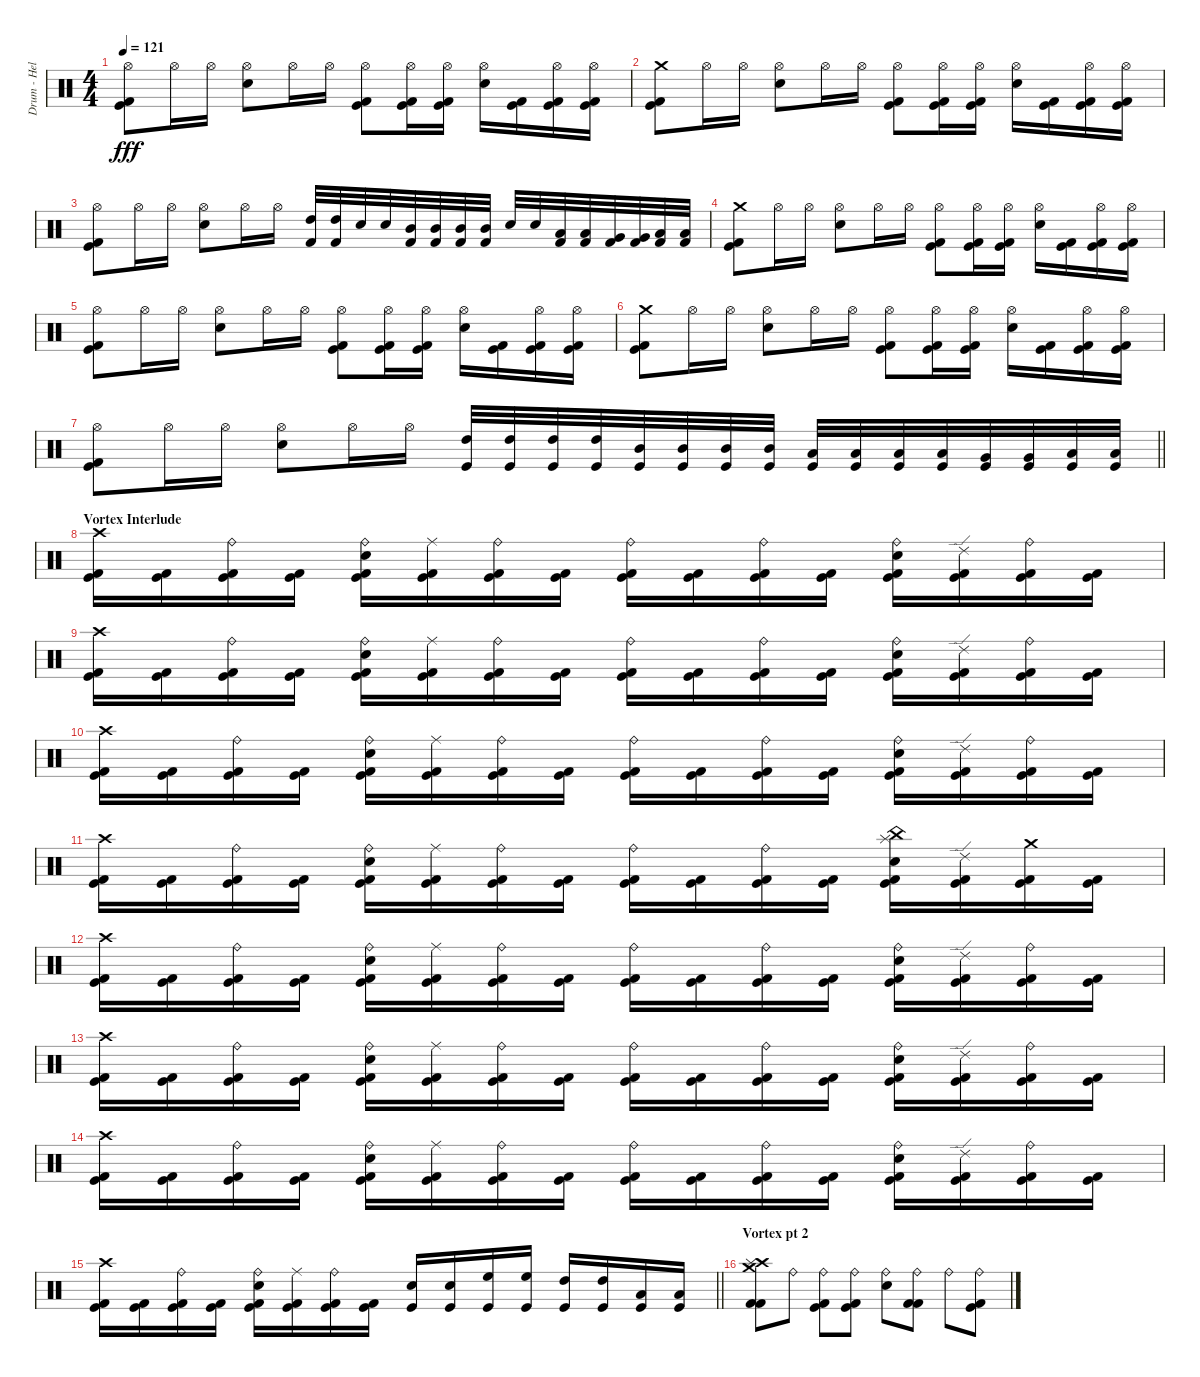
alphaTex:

\track ("Drum - Hellhammer" "Drum - Hel") {instrument percussion}
\staff {score}
\articulation defaults
\ts (4 4)
\tempo 121
\clef neutral
\ks c
("Hi-Hat (open)" "Kick (hit) 2" "Kick (hit)").8{dy fff} "Hi-Hat (open)".16 "Hi-Hat (open)".16 ("Hi-Hat (open)" "Electric Snare (hit)").8 "Hi-Hat (open)".16 "Hi-Hat (open)".16 ("Hi-Hat (open)" "Kick (hit) 2" "Kick (hit)").8 ("Hi-Hat (open)" "Kick (hit) 2" "Kick (hit)").16 ("Hi-Hat (open)" "Kick (hit) 2" "Kick (hit)").16 ("Hi-Hat (open)" "Electric Snare (hit)").16 ("Kick (hit) 2" "Kick (hit)").16 ("Hi-Hat (open)" "Kick (hit) 2" "Kick (hit)").16 ("Hi-Hat (open)" "Kick (hit) 2" "Kick (hit)").16 |
("Crash medium (hit)" "Kick (hit) 2" "Kick (hit)").8 "Hi-Hat (open)".16 "Hi-Hat (open)".16 ("Hi-Hat (open)" "Electric Snare (hit)").8 "Hi-Hat (open)".16 "Hi-Hat (open)".16 ("Hi-Hat (open)" "Kick (hit) 2" "Kick (hit)").8 ("Hi-Hat (open)" "Kick (hit) 2" "Kick (hit)").16 ("Hi-Hat (open)" "Kick (hit) 2" "Kick (hit)").16 ("Hi-Hat (open)" "Electric Snare (hit)").16 ("Kick (hit) 2" "Kick (hit)").16 ("Hi-Hat (open)" "Kick (hit) 2" "Kick (hit)").16 ("Hi-Hat (open)" "Kick (hit) 2" "Kick (hit)").16 |
("Hi-Hat (open)" "Kick (hit) 2" "Kick (hit)").8 "Hi-Hat (open)".16 "Hi-Hat (open)".16 ("Hi-Hat (open)" "Electric Snare (hit)").8 "Hi-Hat (open)".16 "Hi-Hat (open)".16 ("High Tom (hit)" "Kick (hit) 2").32 ("High Tom (hit)" "Kick (hit) 2").32 "Electric Snare (hit)".32 "Electric Snare (hit)".32 ("Mid Tom (hit)" "Kick (hit) 2").32 ("Mid Tom (hit)" "Kick (hit) 2").32 ("Mid Tom (hit)" "Kick (hit) 2").32 ("Mid Tom (hit)" "Kick (hit) 2").32 "Electric Snare (hit)".32 "Electric Snare (hit)".32 ("Low Tom (hit)" "Kick (hit) 2").32 ("Low Tom (hit)" "Kick (hit) 2").32 ("Very Low Tom (hit)" "Kick (hit) 2").32 ("Very Low Tom (hit)" "Kick (hit) 2").32 ("Low Floor Tom (hit)" "Kick (hit) 2").32 ("Low Floor Tom (hit)" "Kick (hit) 2").32 |
("Crash medium (hit)" "Kick (hit) 2" "Kick (hit)").8 "Hi-Hat (open)".16 "Hi-Hat (open)".16 ("Hi-Hat (open)" "Electric Snare (hit)").8 "Hi-Hat (open)".16 "Hi-Hat (open)".16 ("Hi-Hat (open)" "Kick (hit) 2" "Kick (hit)").8 ("Hi-Hat (open)" "Kick (hit) 2" "Kick (hit)").16 ("Hi-Hat (open)" "Kick (hit) 2" "Kick (hit)").16 ("Hi-Hat (open)" "Electric Snare (hit)").16 ("Kick (hit) 2" "Kick (hit)").16 ("Hi-Hat (open)" "Kick (hit) 2" "Kick (hit)").16 ("Hi-Hat (open)" "Kick (hit) 2" "Kick (hit)").16 |
("Hi-Hat (open)" "Kick (hit) 2" "Kick (hit)").8 "Hi-Hat (open)".16 "Hi-Hat (open)".16 ("Hi-Hat (open)" "Electric Snare (hit)").8 "Hi-Hat (open)".16 "Hi-Hat (open)".16 ("Hi-Hat (open)" "Kick (hit) 2" "Kick (hit)").8 ("Hi-Hat (open)" "Kick (hit) 2" "Kick (hit)").16 ("Hi-Hat (open)" "Kick (hit) 2" "Kick (hit)").16 ("Hi-Hat (open)" "Electric Snare (hit)").16 ("Kick (hit) 2" "Kick (hit)").16 ("Hi-Hat (open)" "Kick (hit) 2" "Kick (hit)").16 ("Hi-Hat (open)" "Kick (hit) 2" "Kick (hit)").16 |
("Crash medium (hit)" "Kick (hit) 2" "Kick (hit)").8 "Hi-Hat (open)".16 "Hi-Hat (open)".16 ("Hi-Hat (open)" "Electric Snare (hit)").8 "Hi-Hat (open)".16 "Hi-Hat (open)".16 ("Hi-Hat (open)" "Kick (hit) 2" "Kick (hit)").8 ("Hi-Hat (open)" "Kick (hit) 2" "Kick (hit)").16 ("Hi-Hat (open)" "Kick (hit) 2" "Kick (hit)").16 ("Hi-Hat (open)" "Electric Snare (hit)").16 ("Kick (hit) 2" "Kick (hit)").16 ("Hi-Hat (open)" "Kick (hit) 2" "Kick (hit)").16 ("Hi-Hat (open)" "Kick (hit) 2" "Kick (hit)").16 |
\barLineRight lightlight
("Hi-Hat (open)" "Kick (hit) 2" "Kick (hit)").8 "Hi-Hat (open)".16 "Hi-Hat (open)".16 ("Hi-Hat (open)" "Electric Snare (hit)").8 "Hi-Hat (open)".16 "Hi-Hat (open)".16 ("High Tom (hit)" "Kick (hit)").32 ("High Tom (hit)" "Kick (hit)").32 ("High Tom (hit)" "Kick (hit)").32 ("High Tom (hit)" "Kick (hit)").32 ("Mid Tom (hit)" "Kick (hit)").32 ("Mid Tom (hit)" "Kick (hit)").32 ("Mid Tom (hit)" "Kick (hit)").32 ("Mid Tom (hit)" "Kick (hit)").32 ("Low Tom (hit)" "Kick (hit)").32 ("Low Tom (hit)" "Kick (hit)").32 ("Low Tom (hit)" "Kick (hit)").32 ("Low Tom (hit)" "Kick (hit)").32 ("Very Low Tom (hit)" "Kick (hit)").32 ("Very Low Tom (hit)" "Kick (hit)").32 ("Low Floor Tom (hit)" "Kick (hit)").32 ("Low Floor Tom (hit)" "Kick (hit)").32 |
\section ("" "Vortex Interlude")
("Crash high (hit)" "Kick (hit) 2" "Kick (hit)").16 ("Kick (hit) 2" "Kick (hit)").16 ("Ride (bell)" "Kick (hit) 2" "Kick (hit)").16 ("Kick (hit) 2" "Kick (hit)").16 ("Ride (bell)" "Electric Snare (hit)" "Kick (hit) 2" "Kick (hit)").16 ("Ride (middle)" "Kick (hit) 2" "Kick (hit)").16 ("Ride (bell)" "Kick (hit) 2" "Kick (hit)").16 ("Kick (hit) 2" "Kick (hit)").16 ("Ride (bell)" "Kick (hit) 2" "Kick (hit)").16 ("Kick (hit) 2" "Kick (hit)").16 ("Ride (bell)" "Kick (hit) 2" "Kick (hit)").16 ("Kick (hit) 2" "Kick (hit)").16 ("Ride (bell)" "Electric Snare (hit)" "Kick (hit) 2" "Kick (hit)").16 ("Ride (edge) 2" "Kick (hit) 2" "Kick (hit)").16 ("Ride (bell)" "Kick (hit) 2" "Kick (hit)").16 ("Kick (hit) 2" "Kick (hit)").16 |
("Crash high (hit)" "Kick (hit) 2" "Kick (hit)").16 ("Kick (hit) 2" "Kick (hit)").16 ("Ride (bell)" "Kick (hit) 2" "Kick (hit)").16 ("Kick (hit) 2" "Kick (hit)").16 ("Ride (bell)" "Electric Snare (hit)" "Kick (hit) 2" "Kick (hit)").16 ("Ride (middle)" "Kick (hit) 2" "Kick (hit)").16 ("Ride (bell)" "Kick (hit) 2" "Kick (hit)").16 ("Kick (hit) 2" "Kick (hit)").16 ("Ride (bell)" "Kick (hit) 2" "Kick (hit)").16 ("Kick (hit) 2" "Kick (hit)").16 ("Ride (bell)" "Kick (hit) 2" "Kick (hit)").16 ("Kick (hit) 2" "Kick (hit)").16 ("Ride (bell)" "Electric Snare (hit)" "Kick (hit) 2" "Kick (hit)").16 ("Ride (edge) 2" "Kick (hit) 2" "Kick (hit)").16 ("Ride (bell)" "Kick (hit) 2" "Kick (hit)").16 ("Kick (hit) 2" "Kick (hit)").16 |
("Crash high (hit)" "Kick (hit) 2" "Kick (hit)").16 ("Kick (hit) 2" "Kick (hit)").16 ("Ride (bell)" "Kick (hit) 2" "Kick (hit)").16 ("Kick (hit) 2" "Kick (hit)").16 ("Ride (bell)" "Electric Snare (hit)" "Kick (hit) 2" "Kick (hit)").16 ("Ride (middle)" "Kick (hit) 2" "Kick (hit)").16 ("Ride (bell)" "Kick (hit) 2" "Kick (hit)").16 ("Kick (hit) 2" "Kick (hit)").16 ("Ride (bell)" "Kick (hit) 2" "Kick (hit)").16 ("Kick (hit) 2" "Kick (hit)").16 ("Ride (bell)" "Kick (hit) 2" "Kick (hit)").16 ("Kick (hit) 2" "Kick (hit)").16 ("Ride (bell)" "Electric Snare (hit)" "Kick (hit) 2" "Kick (hit)").16 ("Ride (edge) 2" "Kick (hit) 2" "Kick (hit)").16 ("Ride (bell)" "Kick (hit) 2" "Kick (hit)").16 ("Kick (hit) 2" "Kick (hit)").16 |
("Crash high (hit)" "Kick (hit) 2" "Kick (hit)").16 ("Kick (hit) 2" "Kick (hit)").16 ("Ride (bell)" "Kick (hit) 2" "Kick (hit)").16 ("Kick (hit) 2" "Kick (hit)").16 ("Ride (bell)" "Electric Snare (hit)" "Kick (hit) 2" "Kick (hit)").16 ("Ride (middle)" "Kick (hit) 2" "Kick (hit)").16 ("Ride (bell)" "Kick (hit) 2" "Kick (hit)").16 ("Kick (hit) 2" "Kick (hit)").16 ("Ride (bell)" "Kick (hit) 2" "Kick (hit)").16 ("Kick (hit) 2" "Kick (hit)").16 ("Ride (bell)" "Kick (hit) 2" "Kick (hit)").16 ("Kick (hit) 2" "Kick (hit)").16 ("China (hit)" "Splash (hit)" "Electric Snare (hit)" "Kick (hit) 2" "Kick (hit)").16 ("Ride (edge) 2" "Kick (hit) 2" "Kick (hit)").16 ("Crash medium (hit)" "Kick (hit) 2" "Kick (hit)").16 ("Kick (hit) 2" "Kick (hit)").16 |
("Crash high (hit)" "Kick (hit) 2" "Kick (hit)").16 ("Kick (hit) 2" "Kick (hit)").16 ("Ride (bell)" "Kick (hit) 2" "Kick (hit)").16 ("Kick (hit) 2" "Kick (hit)").16 ("Ride (bell)" "Electric Snare (hit)" "Kick (hit) 2" "Kick (hit)").16 ("Ride (middle)" "Kick (hit) 2" "Kick (hit)").16 ("Ride (bell)" "Kick (hit) 2" "Kick (hit)").16 ("Kick (hit) 2" "Kick (hit)").16 ("Ride (bell)" "Kick (hit) 2" "Kick (hit)").16 ("Kick (hit) 2" "Kick (hit)").16 ("Ride (bell)" "Kick (hit) 2" "Kick (hit)").16 ("Kick (hit) 2" "Kick (hit)").16 ("Ride (bell)" "Electric Snare (hit)" "Kick (hit) 2" "Kick (hit)").16 ("Ride (edge) 2" "Kick (hit) 2" "Kick (hit)").16 ("Ride (bell)" "Kick (hit) 2" "Kick (hit)").16 ("Kick (hit) 2" "Kick (hit)").16 |
("Crash high (hit)" "Kick (hit) 2" "Kick (hit)").16 ("Kick (hit) 2" "Kick (hit)").16 ("Ride (bell)" "Kick (hit) 2" "Kick (hit)").16 ("Kick (hit) 2" "Kick (hit)").16 ("Ride (bell)" "Electric Snare (hit)" "Kick (hit) 2" "Kick (hit)").16 ("Ride (middle)" "Kick (hit) 2" "Kick (hit)").16 ("Ride (bell)" "Kick (hit) 2" "Kick (hit)").16 ("Kick (hit) 2" "Kick (hit)").16 ("Ride (bell)" "Kick (hit) 2" "Kick (hit)").16 ("Kick (hit) 2" "Kick (hit)").16 ("Ride (bell)" "Kick (hit) 2" "Kick (hit)").16 ("Kick (hit) 2" "Kick (hit)").16 ("Ride (bell)" "Electric Snare (hit)" "Kick (hit) 2" "Kick (hit)").16 ("Ride (edge) 2" "Kick (hit) 2" "Kick (hit)").16 ("Ride (bell)" "Kick (hit) 2" "Kick (hit)").16 ("Kick (hit) 2" "Kick (hit)").16 |
("Crash high (hit)" "Kick (hit) 2" "Kick (hit)").16 ("Kick (hit) 2" "Kick (hit)").16 ("Ride (bell)" "Kick (hit) 2" "Kick (hit)").16 ("Kick (hit) 2" "Kick (hit)").16 ("Ride (bell)" "Electric Snare (hit)" "Kick (hit) 2" "Kick (hit)").16 ("Ride (middle)" "Kick (hit) 2" "Kick (hit)").16 ("Ride (bell)" "Kick (hit) 2" "Kick (hit)").16 ("Kick (hit) 2" "Kick (hit)").16 ("Ride (bell)" "Kick (hit) 2" "Kick (hit)").16 ("Kick (hit) 2" "Kick (hit)").16 ("Ride (bell)" "Kick (hit) 2" "Kick (hit)").16 ("Kick (hit) 2" "Kick (hit)").16 ("Ride (bell)" "Electric Snare (hit)" "Kick (hit) 2" "Kick (hit)").16 ("Ride (edge) 2" "Kick (hit) 2" "Kick (hit)").16 ("Ride (bell)" "Kick (hit) 2" "Kick (hit)").16 ("Kick (hit) 2" "Kick (hit)").16 |
\barLineRight lightlight
("Crash high (hit)" "Kick (hit) 2" "Kick (hit)").16 ("Kick (hit) 2" "Kick (hit)").16 ("Ride (bell)" "Kick (hit) 2" "Kick (hit)").16 ("Kick (hit) 2" "Kick (hit)").16 ("Ride (bell)" "Electric Snare (hit)" "Kick (hit) 2" "Kick (hit)").16 ("Ride (middle)" "Kick (hit) 2" "Kick (hit)").16 ("Ride (bell)" "Kick (hit) 2" "Kick (hit)").16 ("Kick (hit) 2" "Kick (hit)").16 ("Electric Snare (hit)" "Kick (hit)").16 ("Electric Snare (hit)" "Kick (hit)").16 ("High Floor Tom (hit)" "Kick (hit)").16 ("High Floor Tom (hit)" "Kick (hit)").16 ("High Tom (hit)" "Kick (hit)").16 ("High Tom (hit)" "Kick (hit)").16 ("Low Tom (hit)" "Kick (hit)").16 ("Low Tom (hit)" "Kick (hit)").16 |
\section ("" "Vortex pt 2")
("Crash medium (hit)" "Crash high (hit)" "Splash (hit)" "Kick (hit) 2" "Kick (hit) 2").8 "Ride (bell)".8 ("Ride (bell)" "Kick (hit) 2" "Kick (hit)").8 ("Ride (bell)" "Kick (hit) 2" "Kick (hit)").8 ("Ride (bell)" "Electric Snare (hit)").8 ("Ride (bell)" "Kick (hit) 2" "Kick (hit) 2").8 "Ride (bell)".8 ("Ride (bell)" "Kick (hit) 2" "Kick (hit)").8
